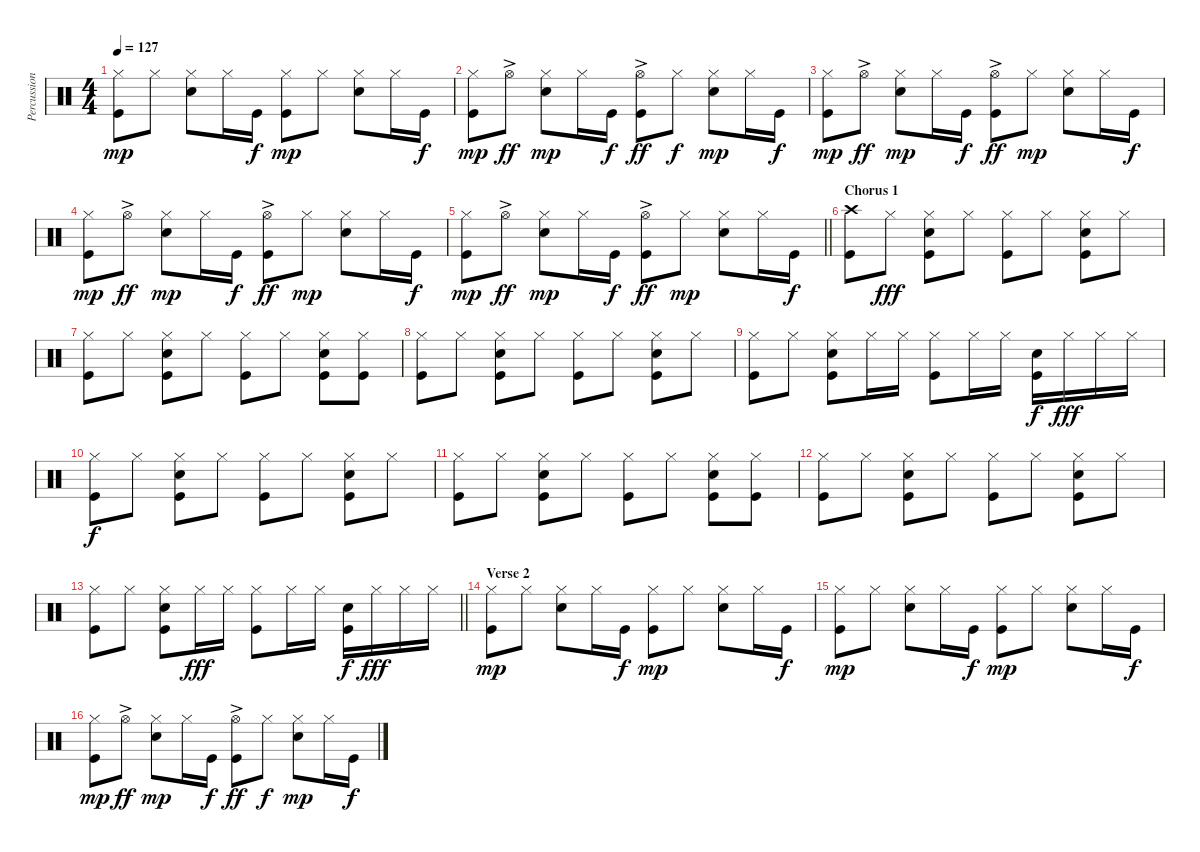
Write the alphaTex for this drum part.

\track ("Percussion" "Percussion") {instrument percussion}
\staff {score}
\articulation defaults
\ts (4 4)
\tempo 127
\clef neutral
\ks c
("Hi-Hat (closed)" "Kick (hit)").8{dy mp} "Hi-Hat (closed)".8 ("Hi-Hat (closed)" "Snare (hit) 2").8 "Hi-Hat (closed)".16 "Kick (hit)".16{dy f} ("Hi-Hat (closed)" "Kick (hit)").8{dy mp} "Hi-Hat (closed)".8 ("Hi-Hat (closed)" "Snare (hit) 2").8 "Hi-Hat (closed)".16 "Kick (hit)".16{dy f} |
("Hi-Hat (closed)" "Kick (hit)").8{dy mp} "Hi-Hat (open)"{ac}.8{dy ff} ("Hi-Hat (closed)" "Snare (hit) 2").8{dy mp} "Hi-Hat (closed)".16 "Kick (hit)".16{dy f} ("Hi-Hat (open)"{ac} "Kick (hit)").8{dy ff} "Hi-Hat (closed)".8{dy f} ("Hi-Hat (closed)" "Snare (hit) 2").8{dy mp} "Hi-Hat (closed)".16 "Kick (hit)".16{dy f} |
("Hi-Hat (closed)" "Kick (hit)").8{dy mp} "Hi-Hat (open)"{ac}.8{dy ff} ("Hi-Hat (closed)" "Snare (hit) 2").8{dy mp} "Hi-Hat (closed)".16 "Kick (hit)".16{dy f} ("Hi-Hat (open)"{ac} "Kick (hit)").8{dy ff} "Hi-Hat (closed)".8{dy mp} ("Hi-Hat (closed)" "Snare (hit) 2").8 "Hi-Hat (closed)".16 "Kick (hit)".16{dy f} |
("Hi-Hat (closed)" "Kick (hit)").8{dy mp} "Hi-Hat (open)"{ac}.8{dy ff} ("Hi-Hat (closed)" "Snare (hit) 2").8{dy mp} "Hi-Hat (closed)".16 "Kick (hit)".16{dy f} ("Hi-Hat (open)"{ac} "Kick (hit)").8{dy ff} "Hi-Hat (closed)".8{dy mp} ("Hi-Hat (closed)" "Snare (hit) 2").8 "Hi-Hat (closed)".16 "Kick (hit)".16{dy f} |
\barLineRight lightlight
("Hi-Hat (closed)" "Kick (hit)").8{dy mp} "Hi-Hat (open)"{ac}.8{dy ff} ("Hi-Hat (closed)" "Snare (hit) 2").8{dy mp} "Hi-Hat (closed)".16 "Kick (hit)".16{dy f} ("Hi-Hat (open)"{ac} "Kick (hit)").8{dy ff} "Hi-Hat (closed)".8{dy mp} ("Hi-Hat (closed)" "Snare (hit) 2").8 "Hi-Hat (closed)".16 "Kick (hit)".16{dy f} |
\section ("" "Chorus 1")
("Crash high (hit)" "Kick (hit)").8 "Hi-Hat (closed)".8{dy fff} ("Hi-Hat (closed)" "Snare (hit) 2" "Kick (hit)").8 "Hi-Hat (closed)".8 ("Hi-Hat (closed)" "Kick (hit)").8 "Hi-Hat (closed)".8 ("Hi-Hat (closed)" "Snare (hit) 2" "Kick (hit)").8 "Hi-Hat (closed)".8 |
("Hi-Hat (closed)" "Kick (hit)").8 "Hi-Hat (closed)".8 ("Hi-Hat (closed)" "Snare (hit) 2" "Kick (hit)").8 "Hi-Hat (closed)".8 ("Hi-Hat (closed)" "Kick (hit)").8 "Hi-Hat (closed)".8 ("Hi-Hat (closed)" "Snare (hit) 2" "Kick (hit)").8 ("Hi-Hat (closed)" "Kick (hit)").8 |
("Hi-Hat (closed)" "Kick (hit)").8 "Hi-Hat (closed)".8 ("Hi-Hat (closed)" "Snare (hit) 2" "Kick (hit)").8 "Hi-Hat (closed)".8 ("Hi-Hat (closed)" "Kick (hit)").8 "Hi-Hat (closed)".8 ("Hi-Hat (closed)" "Snare (hit) 2" "Kick (hit)").8 "Hi-Hat (closed)".8 |
("Hi-Hat (closed)" "Kick (hit)").8 "Hi-Hat (closed)".8 ("Hi-Hat (closed)" "Snare (hit) 2" "Kick (hit)").8 "Hi-Hat (closed)".16 "Hi-Hat (closed)".16 ("Hi-Hat (closed)" "Kick (hit)").8 "Hi-Hat (closed)".16 "Hi-Hat (closed)".16 ("Snare (hit) 2" "Kick (hit)").16{dy f} "Hi-Hat (closed)".16{dy fff} "Hi-Hat (closed)".16 "Hi-Hat (closed)".16 |
("Hi-Hat (closed)" "Kick (hit)").8{dy f} "Hi-Hat (closed)".8 ("Hi-Hat (closed)" "Snare (hit) 2" "Kick (hit)").8 "Hi-Hat (closed)".8 ("Hi-Hat (closed)" "Kick (hit)").8 "Hi-Hat (closed)".8 ("Hi-Hat (closed)" "Snare (hit) 2" "Kick (hit)").8 "Hi-Hat (closed)".8 |
("Hi-Hat (closed)" "Kick (hit)").8 "Hi-Hat (closed)".8 ("Hi-Hat (closed)" "Snare (hit) 2" "Kick (hit)").8 "Hi-Hat (closed)".8 ("Hi-Hat (closed)" "Kick (hit)").8 "Hi-Hat (closed)".8 ("Hi-Hat (closed)" "Snare (hit) 2" "Kick (hit)").8 ("Hi-Hat (closed)" "Kick (hit)").8 |
("Hi-Hat (closed)" "Kick (hit)").8 "Hi-Hat (closed)".8 ("Hi-Hat (closed)" "Snare (hit) 2" "Kick (hit)").8 "Hi-Hat (closed)".8 ("Hi-Hat (closed)" "Kick (hit)").8 "Hi-Hat (closed)".8 ("Hi-Hat (closed)" "Snare (hit) 2" "Kick (hit)").8 "Hi-Hat (closed)".8 |
\barLineRight lightlight
("Hi-Hat (closed)" "Kick (hit)").8 "Hi-Hat (closed)".8 ("Hi-Hat (closed)" "Snare (hit) 2" "Kick (hit)").8 "Hi-Hat (closed)".16{dy fff} "Hi-Hat (closed)".16 ("Hi-Hat (closed)" "Kick (hit)").8 "Hi-Hat (closed)".16 "Hi-Hat (closed)".16 ("Snare (hit) 2" "Kick (hit)").16{dy f} "Hi-Hat (closed)".16{dy fff} "Hi-Hat (closed)".16 "Hi-Hat (closed)".16 |
\section ("" "Verse 2")
("Hi-Hat (closed)" "Kick (hit)").8{dy mp} "Hi-Hat (closed)".8 ("Hi-Hat (closed)" "Snare (hit) 2").8 "Hi-Hat (closed)".16 "Kick (hit)".16{dy f} ("Hi-Hat (closed)" "Kick (hit)").8{dy mp} "Hi-Hat (closed)".8 ("Hi-Hat (closed)" "Snare (hit) 2").8 "Hi-Hat (closed)".16 "Kick (hit)".16{dy f} |
("Hi-Hat (closed)" "Kick (hit)").8{dy mp} "Hi-Hat (closed)".8 ("Hi-Hat (closed)" "Snare (hit) 2").8 "Hi-Hat (closed)".16 "Kick (hit)".16{dy f} ("Hi-Hat (closed)" "Kick (hit)").8{dy mp} "Hi-Hat (closed)".8 ("Hi-Hat (closed)" "Snare (hit) 2").8 "Hi-Hat (closed)".16 "Kick (hit)".16{dy f} |
("Hi-Hat (closed)" "Kick (hit)").8{dy mp} "Hi-Hat (open)"{ac}.8{dy ff} ("Hi-Hat (closed)" "Snare (hit) 2").8{dy mp} "Hi-Hat (closed)".16 "Kick (hit)".16{dy f} ("Hi-Hat (open)"{ac} "Kick (hit)").8{dy ff} "Hi-Hat (closed)".8{dy f} ("Hi-Hat (closed)" "Snare (hit) 2").8{dy mp} "Hi-Hat (closed)".16 "Kick (hit)".16{dy f}
